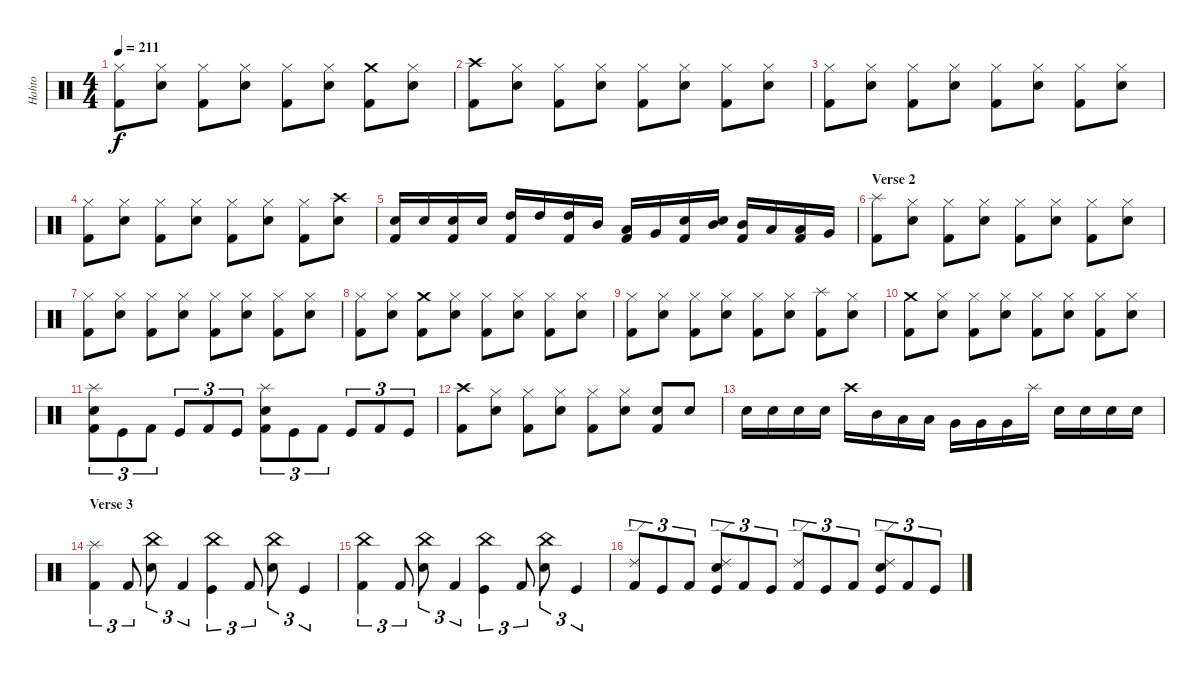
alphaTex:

\track ("Hahto" "Hahto") {instrument percussion}
\staff {score}
\articulation defaults
\ts (4 4)
\tempo 211
\clef neutral
\ks c
("Hi-Hat (closed)" "Kick (hit) 2").8{dy f} ("Hi-Hat (closed)" "Snare (hit) 2").8 ("Hi-Hat (closed)" "Kick (hit) 2").8 ("Hi-Hat (closed)" "Snare (hit) 2").8 ("Hi-Hat (closed)" "Kick (hit) 2").8 ("Hi-Hat (closed)" "Snare (hit) 2").8 ("Crash medium (hit)" "Kick (hit) 2").8 ("Hi-Hat (closed)" "Snare (hit) 2").8 |
("Crash high (hit)" "Kick (hit) 2").8 ("Hi-Hat (closed)" "Snare (hit) 2").8 ("Hi-Hat (closed)" "Kick (hit) 2").8 ("Hi-Hat (closed)" "Snare (hit) 2").8 ("Hi-Hat (closed)" "Kick (hit) 2").8 ("Hi-Hat (closed)" "Snare (hit) 2").8 ("Hi-Hat (closed)" "Kick (hit) 2").8 ("Hi-Hat (closed)" "Snare (hit) 2").8 |
("Hi-Hat (closed)" "Kick (hit) 2").8 ("Hi-Hat (closed)" "Snare (hit) 2").8 ("Hi-Hat (closed)" "Kick (hit) 2").8 ("Hi-Hat (closed)" "Snare (hit) 2").8 ("Hi-Hat (closed)" "Kick (hit) 2").8 ("Hi-Hat (closed)" "Snare (hit) 2").8 ("Hi-Hat (closed)" "Kick (hit) 2").8 ("Hi-Hat (closed)" "Snare (hit) 2").8 |
("Hi-Hat (closed)" "Kick (hit) 2").8 ("Hi-Hat (closed)" "Snare (hit) 2").8 ("Hi-Hat (closed)" "Kick (hit) 2").8 ("Hi-Hat (closed)" "Snare (hit) 2").8 ("Hi-Hat (closed)" "Kick (hit) 2").8 ("Hi-Hat (closed)" "Snare (hit) 2").8 ("Hi-Hat (closed)" "Kick (hit) 2").8 ("Crash high (hit)" "Snare (hit) 2").8 |
("Snare (hit) 2" "Kick (hit) 2").16 "Snare (hit) 2".16 ("Snare (hit) 2" "Kick (hit) 2").16 "Snare (hit) 2".16 ("High Tom (hit)" "Kick (hit) 2").16 "High Tom (hit)".16 ("High Tom (hit)" "Kick (hit) 2").16 "Mid Tom (hit)".16 ("Low Tom (hit)" "Kick (hit) 2").16 "Very Low Tom (hit)".16 ("Snare (hit) 2" "Kick (hit) 2").16 ("Mid Tom (hit)" "Snare (hit) 2").16 ("Mid Tom (hit)" "Kick (hit) 2").16 "Low Tom (hit)".16 ("Low Tom (hit)" "Kick (hit) 2").16 "Very Low Tom (hit)".16 |
\section ("" "Verse 2")
("Splash (hit)" "Kick (hit) 2").8 ("Hi-Hat (closed)" "Snare (hit) 2").8 ("Hi-Hat (closed)" "Kick (hit) 2").8 ("Hi-Hat (closed)" "Snare (hit) 2").8 ("Hi-Hat (closed)" "Kick (hit) 2").8 ("Hi-Hat (closed)" "Snare (hit) 2").8 ("Hi-Hat (closed)" "Kick (hit) 2").8 ("Hi-Hat (closed)" "Snare (hit) 2").8 |
("Hi-Hat (closed)" "Kick (hit) 2").8 ("Hi-Hat (closed)" "Snare (hit) 2").8 ("Hi-Hat (closed)" "Kick (hit) 2").8 ("Hi-Hat (closed)" "Snare (hit) 2").8 ("Hi-Hat (closed)" "Kick (hit) 2").8 ("Hi-Hat (closed)" "Snare (hit) 2").8 ("Hi-Hat (closed)" "Kick (hit) 2").8 ("Hi-Hat (closed)" "Snare (hit) 2").8 |
("Hi-Hat (closed)" "Kick (hit) 2").8 ("Hi-Hat (closed)" "Snare (hit) 2").8 ("Crash medium (hit)" "Kick (hit) 2").8 ("Hi-Hat (closed)" "Snare (hit) 2").8 ("Hi-Hat (closed)" "Kick (hit) 2").8 ("Hi-Hat (closed)" "Snare (hit) 2").8 ("Hi-Hat (closed)" "Kick (hit) 2").8 ("Hi-Hat (closed)" "Snare (hit) 2").8 |
("Hi-Hat (closed)" "Kick (hit) 2").8 ("Hi-Hat (closed)" "Snare (hit) 2").8 ("Hi-Hat (closed)" "Kick (hit) 2").8 ("Hi-Hat (closed)" "Snare (hit) 2").8 ("Hi-Hat (closed)" "Kick (hit) 2").8 ("Hi-Hat (closed)" "Snare (hit) 2").8 ("Splash (hit)" "Kick (hit) 2").8 ("Hi-Hat (closed)" "Snare (hit) 2").8 |
("Crash medium (hit)" "Kick (hit) 2").8 ("Hi-Hat (closed)" "Snare (hit) 2").8 ("Hi-Hat (closed)" "Kick (hit) 2").8 ("Hi-Hat (closed)" "Snare (hit) 2").8 ("Hi-Hat (closed)" "Kick (hit) 2").8 ("Hi-Hat (closed)" "Snare (hit) 2").8 ("Hi-Hat (closed)" "Kick (hit) 2").8 ("Hi-Hat (closed)" "Snare (hit) 2").8 |
("Splash (hit)" "Snare (hit) 2" "Kick (hit) 2").8{tu (3 2)} "Kick (hit)".8{tu (3 2)} "Kick (hit) 2".8{tu (3 2)} "Kick (hit)".8{tu (3 2)} "Kick (hit) 2".8{tu (3 2)} "Kick (hit)".8{tu (3 2)} ("Splash (hit)" "Snare (hit) 2" "Kick (hit) 2").8{tu (3 2)} "Kick (hit)".8{tu (3 2)} "Kick (hit) 2".8{tu (3 2)} "Kick (hit)".8{tu (3 2)} "Kick (hit) 2".8{tu (3 2)} "Kick (hit)".8{tu (3 2)} |
("Crash high (hit)" "Kick (hit) 2").8 ("Hi-Hat (closed)" "Snare (hit) 2").8 ("Hi-Hat (closed)" "Kick (hit) 2").8 ("Hi-Hat (closed)" "Snare (hit) 2").8 ("Hi-Hat (closed)" "Kick (hit) 2").8 ("Hi-Hat (closed)" "Snare (hit) 2").8 ("Snare (hit) 2" "Kick (hit) 2").8 "Snare (hit) 2".8 |
"Snare (hit) 2".16 "Snare (hit) 2".16 "Snare (hit) 2".16 "Snare (hit) 2".16 "Crash high (hit)".16 "Mid Tom (hit)".16 "Low Tom (hit)".16 "Low Tom (hit)".16 "Very Low Tom (hit)".16 "Very Low Tom (hit)".16 "Very Low Tom (hit)".16 "Splash (hit)".16 "Snare (hit) 2".16 "Snare (hit) 2".16 "Snare (hit) 2".16 "Snare (hit) 2".16 |
\section ("" "Verse 3")
("Splash (hit)" "Kick (hit) 2").4{tu (3 2)} "Kick (hit) 2".8{tu (3 2)} ("China (hit)" "Snare (hit) 2").8{tu (3 2)} "Kick (hit) 2".4{tu (3 2)} ("China (hit)" "Kick (hit)").4{tu (3 2)} "Kick (hit) 2".8{tu (3 2)} ("China (hit)" "Snare (hit) 2").8{tu (3 2)} "Kick (hit)".4{tu (3 2)} |
("China (hit)" "Kick (hit) 2").4{tu (3 2)} "Kick (hit) 2".8{tu (3 2)} ("China (hit)" "Snare (hit) 2").8{tu (3 2)} "Kick (hit) 2".4{tu (3 2)} ("China (hit)" "Kick (hit)").4{tu (3 2)} "Kick (hit) 2".8{tu (3 2)} ("China (hit)" "Snare (hit) 2").8{tu (3 2)} "Kick (hit)".4{tu (3 2)} |
("Ride (edge) 2" "Kick (hit) 2").8{tu (3 2)} "Kick (hit)".8{tu (3 2)} "Kick (hit) 2".8{tu (3 2)} ("Ride (edge) 2" "Snare (hit) 2" "Kick (hit)").8{tu (3 2)} "Kick (hit) 2".8{tu (3 2)} "Kick (hit)".8{tu (3 2)} ("Ride (edge) 2" "Kick (hit) 2").8{tu (3 2)} "Kick (hit)".8{tu (3 2)} "Kick (hit) 2".8{tu (3 2)} ("Ride (edge) 2" "Snare (hit) 2" "Kick (hit)").8{tu (3 2)} "Kick (hit) 2".8{tu (3 2)} "Kick (hit)".8{tu (3 2)}
